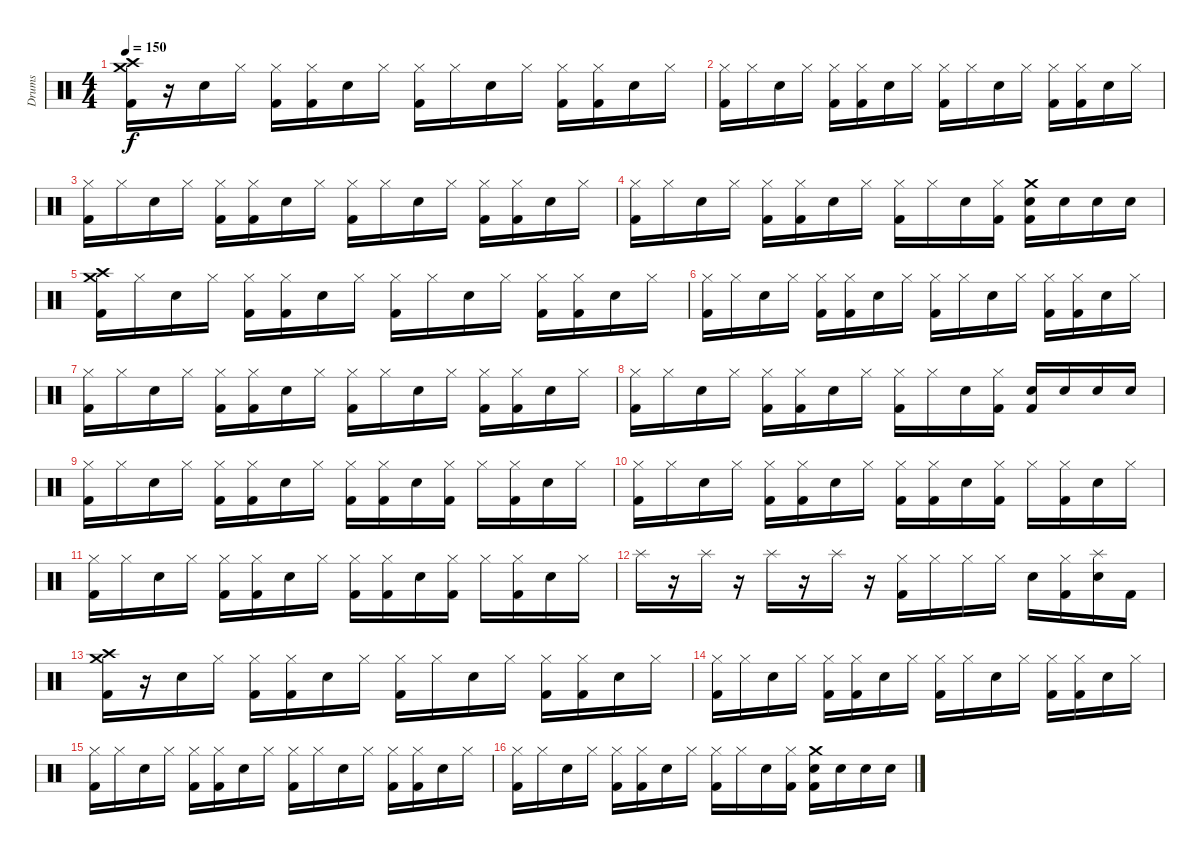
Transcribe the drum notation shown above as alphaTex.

\track ("Drums" "Drums") {instrument percussion}
\staff {score}
\articulation defaults
\ts (4 4)
\tempo 150
\clef neutral
\ks c
("Crash medium (hit)" "Crash high (hit)" "Kick (hit) 2").16{dy f} r.16 "Snare (hit) 2".16 "Hi-Hat (closed)".16 ("Hi-Hat (closed)" "Kick (hit) 2").16 ("Hi-Hat (closed)" "Kick (hit) 2").16 "Snare (hit) 2".16 "Hi-Hat (closed)".16 ("Hi-Hat (closed)" "Kick (hit) 2").16 "Hi-Hat (closed)".16 "Snare (hit) 2".16 "Hi-Hat (closed)".16 ("Hi-Hat (closed)" "Kick (hit) 2").16 ("Hi-Hat (closed)" "Kick (hit) 2").16 "Snare (hit) 2".16 "Hi-Hat (closed)".16 |
("Hi-Hat (closed)" "Kick (hit) 2").16 "Hi-Hat (closed)".16 "Snare (hit) 2".16 "Hi-Hat (closed)".16 ("Hi-Hat (closed)" "Kick (hit) 2").16 ("Hi-Hat (closed)" "Kick (hit) 2").16 "Snare (hit) 2".16 "Hi-Hat (closed)".16 ("Hi-Hat (closed)" "Kick (hit) 2").16 "Hi-Hat (closed)".16 "Snare (hit) 2".16 "Hi-Hat (closed)".16 ("Hi-Hat (closed)" "Kick (hit) 2").16 ("Hi-Hat (closed)" "Kick (hit) 2").16 "Snare (hit) 2".16 "Hi-Hat (closed)".16 |
("Hi-Hat (closed)" "Kick (hit) 2").16 "Hi-Hat (closed)".16 "Snare (hit) 2".16 "Hi-Hat (closed)".16 ("Hi-Hat (closed)" "Kick (hit) 2").16 ("Hi-Hat (closed)" "Kick (hit) 2").16 "Snare (hit) 2".16 "Hi-Hat (closed)".16 ("Hi-Hat (closed)" "Kick (hit) 2").16 "Hi-Hat (closed)".16 "Snare (hit) 2".16 "Hi-Hat (closed)".16 ("Hi-Hat (closed)" "Kick (hit) 2").16 ("Hi-Hat (closed)" "Kick (hit) 2").16 "Snare (hit) 2".16 "Hi-Hat (closed)".16 |
("Hi-Hat (closed)" "Kick (hit) 2").16 "Hi-Hat (closed)".16 "Snare (hit) 2".16 "Hi-Hat (closed)".16 ("Hi-Hat (closed)" "Kick (hit) 2").16 ("Hi-Hat (closed)" "Kick (hit) 2").16 "Snare (hit) 2".16 "Hi-Hat (closed)".16 ("Hi-Hat (closed)" "Kick (hit) 2").16 "Hi-Hat (closed)".16 "Snare (hit) 2".16 ("Hi-Hat (closed)" "Kick (hit) 2").16 ("Crash medium (hit)" "Snare (hit) 2" "Kick (hit) 2").16 "Snare (hit) 2".16 "Snare (hit) 2".16 "Snare (hit) 2".16 |
("Crash medium (hit)" "Crash high (hit)" "Kick (hit) 2").16 "Hi-Hat (closed)".16 "Snare (hit) 2".16 "Hi-Hat (closed)".16 ("Hi-Hat (closed)" "Kick (hit) 2").16 ("Hi-Hat (closed)" "Kick (hit) 2").16 "Snare (hit) 2".16 "Hi-Hat (closed)".16 ("Hi-Hat (closed)" "Kick (hit) 2").16 "Hi-Hat (closed)".16 "Snare (hit) 2".16 "Hi-Hat (closed)".16 ("Hi-Hat (closed)" "Kick (hit) 2").16 ("Hi-Hat (closed)" "Kick (hit) 2").16 "Snare (hit) 2".16 "Hi-Hat (closed)".16 |
("Hi-Hat (closed)" "Kick (hit) 2").16 "Hi-Hat (closed)".16 "Snare (hit) 2".16 "Hi-Hat (closed)".16 ("Hi-Hat (closed)" "Kick (hit) 2").16 ("Hi-Hat (closed)" "Kick (hit) 2").16 "Snare (hit) 2".16 "Hi-Hat (closed)".16 ("Hi-Hat (closed)" "Kick (hit) 2").16 "Hi-Hat (closed)".16 "Snare (hit) 2".16 "Hi-Hat (closed)".16 ("Hi-Hat (closed)" "Kick (hit) 2").16 ("Hi-Hat (closed)" "Kick (hit) 2").16 "Snare (hit) 2".16 "Hi-Hat (closed)".16 |
("Hi-Hat (closed)" "Kick (hit) 2").16 "Hi-Hat (closed)".16 "Snare (hit) 2".16 "Hi-Hat (closed)".16 ("Hi-Hat (closed)" "Kick (hit) 2").16 ("Hi-Hat (closed)" "Kick (hit) 2").16 "Snare (hit) 2".16 "Hi-Hat (closed)".16 ("Hi-Hat (closed)" "Kick (hit) 2").16 "Hi-Hat (closed)".16 "Snare (hit) 2".16 "Hi-Hat (closed)".16 ("Hi-Hat (closed)" "Kick (hit) 2").16 ("Hi-Hat (closed)" "Kick (hit) 2").16 "Snare (hit) 2".16 "Hi-Hat (closed)".16 |
("Hi-Hat (closed)" "Kick (hit) 2").16 "Hi-Hat (closed)".16 "Snare (hit) 2".16 "Hi-Hat (closed)".16 ("Hi-Hat (closed)" "Kick (hit) 2").16 ("Hi-Hat (closed)" "Kick (hit) 2").16 "Snare (hit) 2".16 "Hi-Hat (closed)".16 ("Hi-Hat (closed)" "Kick (hit) 2").16 "Hi-Hat (closed)".16 "Snare (hit) 2".16 ("Hi-Hat (closed)" "Kick (hit) 2").16 ("Snare (hit) 2" "Kick (hit) 2").16 "Snare (hit) 2".16 "Snare (hit) 2".16 "Snare (hit) 2".16 |
("Hi-Hat (closed)" "Kick (hit) 2").16 "Hi-Hat (closed)".16 "Snare (hit) 2".16 "Hi-Hat (closed)".16 ("Hi-Hat (closed)" "Kick (hit) 2").16 ("Hi-Hat (closed)" "Kick (hit) 2").16 "Snare (hit) 2".16 "Hi-Hat (closed)".16 ("Hi-Hat (closed)" "Kick (hit) 2").16 ("Hi-Hat (closed)" "Kick (hit) 2").16 "Snare (hit) 2".16 ("Hi-Hat (closed)" "Kick (hit) 2").16 "Hi-Hat (closed)".16 ("Hi-Hat (closed)" "Kick (hit) 2").16 "Snare (hit) 2".16 "Hi-Hat (closed)".16 |
("Hi-Hat (closed)" "Kick (hit) 2").16 "Hi-Hat (closed)".16 "Snare (hit) 2".16 "Hi-Hat (closed)".16 ("Hi-Hat (closed)" "Kick (hit) 2").16 ("Hi-Hat (closed)" "Kick (hit) 2").16 "Snare (hit) 2".16 "Hi-Hat (closed)".16 ("Hi-Hat (closed)" "Kick (hit) 2").16 ("Hi-Hat (closed)" "Kick (hit) 2").16 "Snare (hit) 2".16 ("Hi-Hat (closed)" "Kick (hit) 2").16 "Hi-Hat (closed)".16 ("Hi-Hat (closed)" "Kick (hit) 2").16 "Snare (hit) 2".16 "Hi-Hat (closed)".16 |
("Hi-Hat (closed)" "Kick (hit) 2").16 "Hi-Hat (closed)".16 "Snare (hit) 2".16 "Hi-Hat (closed)".16 ("Hi-Hat (closed)" "Kick (hit) 2").16 ("Hi-Hat (closed)" "Kick (hit) 2").16 "Snare (hit) 2".16 "Hi-Hat (closed)".16 ("Hi-Hat (closed)" "Kick (hit) 2").16 ("Hi-Hat (closed)" "Kick (hit) 2").16 "Snare (hit) 2".16 ("Hi-Hat (closed)" "Kick (hit) 2").16 "Hi-Hat (closed)".16 ("Hi-Hat (closed)" "Kick (hit) 2").16 "Snare (hit) 2".16 "Hi-Hat (closed)".16 |
"Splash (hit)".16 r.16 "Splash (hit)".16 r.16 "Splash (hit)".16 r.16 "Splash (hit)".16 r.16 ("Hi-Hat (closed)" "Kick (hit) 2").16 "Hi-Hat (closed)".16 "Hi-Hat (closed)".16 "Hi-Hat (closed)".16 "Snare (hit) 2".16 ("Hi-Hat (closed)" "Kick (hit) 2").16 ("Splash (hit)" "Snare (hit) 2").16 "Kick (hit) 2".16 |
("Crash medium (hit)" "Crash high (hit)" "Kick (hit) 2").16 r.16 "Snare (hit) 2".16 "Hi-Hat (closed)".16 ("Hi-Hat (closed)" "Kick (hit) 2").16 ("Hi-Hat (closed)" "Kick (hit) 2").16 "Snare (hit) 2".16 "Hi-Hat (closed)".16 ("Hi-Hat (closed)" "Kick (hit) 2").16 "Hi-Hat (closed)".16 "Snare (hit) 2".16 "Hi-Hat (closed)".16 ("Hi-Hat (closed)" "Kick (hit) 2").16 ("Hi-Hat (closed)" "Kick (hit) 2").16 "Snare (hit) 2".16 "Hi-Hat (closed)".16 |
("Hi-Hat (closed)" "Kick (hit) 2").16 "Hi-Hat (closed)".16 "Snare (hit) 2".16 "Hi-Hat (closed)".16 ("Hi-Hat (closed)" "Kick (hit) 2").16 ("Hi-Hat (closed)" "Kick (hit) 2").16 "Snare (hit) 2".16 "Hi-Hat (closed)".16 ("Hi-Hat (closed)" "Kick (hit) 2").16 "Hi-Hat (closed)".16 "Snare (hit) 2".16 "Hi-Hat (closed)".16 ("Hi-Hat (closed)" "Kick (hit) 2").16 ("Hi-Hat (closed)" "Kick (hit) 2").16 "Snare (hit) 2".16 "Hi-Hat (closed)".16 |
("Hi-Hat (closed)" "Kick (hit) 2").16 "Hi-Hat (closed)".16 "Snare (hit) 2".16 "Hi-Hat (closed)".16 ("Hi-Hat (closed)" "Kick (hit) 2").16 ("Hi-Hat (closed)" "Kick (hit) 2").16 "Snare (hit) 2".16 "Hi-Hat (closed)".16 ("Hi-Hat (closed)" "Kick (hit) 2").16 "Hi-Hat (closed)".16 "Snare (hit) 2".16 "Hi-Hat (closed)".16 ("Hi-Hat (closed)" "Kick (hit) 2").16 ("Hi-Hat (closed)" "Kick (hit) 2").16 "Snare (hit) 2".16 "Hi-Hat (closed)".16 |
("Hi-Hat (closed)" "Kick (hit) 2").16 "Hi-Hat (closed)".16 "Snare (hit) 2".16 "Hi-Hat (closed)".16 ("Hi-Hat (closed)" "Kick (hit) 2").16 ("Hi-Hat (closed)" "Kick (hit) 2").16 "Snare (hit) 2".16 "Hi-Hat (closed)".16 ("Hi-Hat (closed)" "Kick (hit) 2").16 "Hi-Hat (closed)".16 "Snare (hit) 2".16 ("Hi-Hat (closed)" "Kick (hit) 2").16 ("Crash medium (hit)" "Snare (hit) 2" "Kick (hit) 2").16 "Snare (hit) 2".16 "Snare (hit) 2".16 "Snare (hit) 2".16
